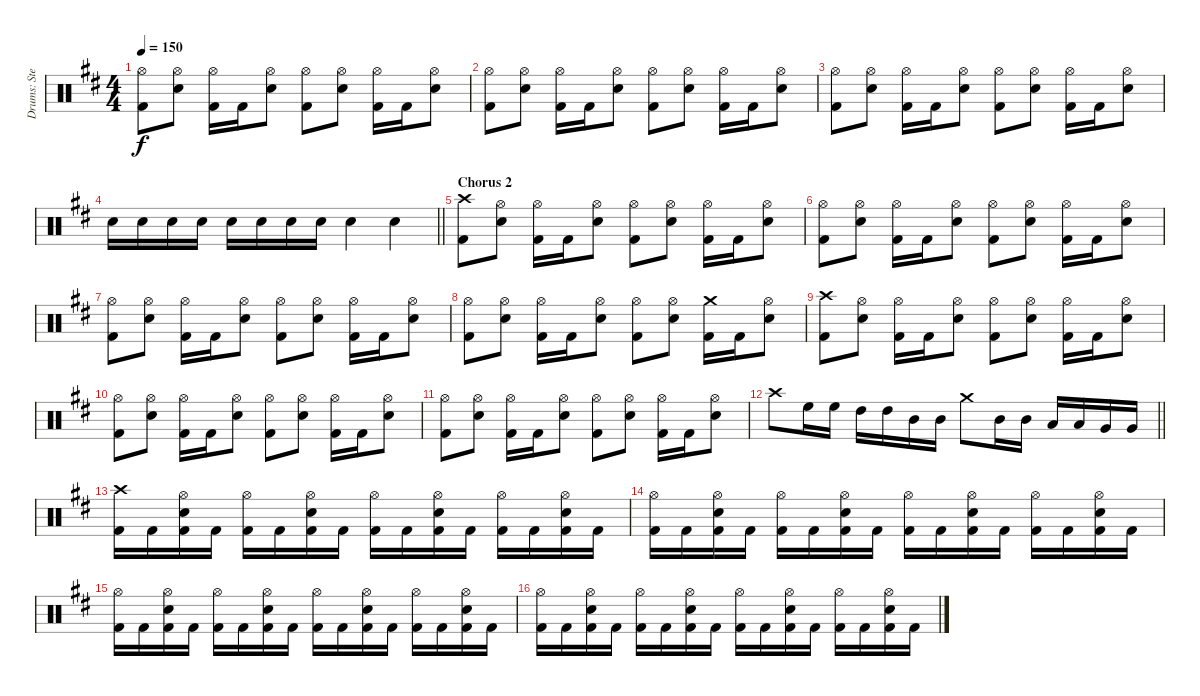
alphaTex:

\track ("Drums: Stefan Svantesson" "Drums: Ste") {instrument percussion}
\staff {score}
\articulation defaults
\ts (4 4)
\tempo 150
\clef neutral
\ks d
("Hi-Hat (open)" "Kick (hit) 2").8{dy f} ("Hi-Hat (open)" "Electric Snare (hit)").8 ("Hi-Hat (open)" "Kick (hit) 2").16 "Kick (hit) 2".16 ("Hi-Hat (open)" "Electric Snare (hit)").8 ("Hi-Hat (open)" "Kick (hit) 2").8 ("Hi-Hat (open)" "Electric Snare (hit)").8 ("Hi-Hat (open)" "Kick (hit) 2").16 "Kick (hit) 2".16 ("Hi-Hat (open)" "Electric Snare (hit)").8 |
("Hi-Hat (open)" "Kick (hit) 2").8 ("Hi-Hat (open)" "Electric Snare (hit)").8 ("Hi-Hat (open)" "Kick (hit) 2").16 "Kick (hit) 2".16 ("Hi-Hat (open)" "Electric Snare (hit)").8 ("Hi-Hat (open)" "Kick (hit) 2").8 ("Hi-Hat (open)" "Electric Snare (hit)").8 ("Hi-Hat (open)" "Kick (hit) 2").16 "Kick (hit) 2".16 ("Hi-Hat (open)" "Electric Snare (hit)").8 |
("Hi-Hat (open)" "Kick (hit) 2").8 ("Hi-Hat (open)" "Electric Snare (hit)").8 ("Hi-Hat (open)" "Kick (hit) 2").16 "Kick (hit) 2".16 ("Hi-Hat (open)" "Electric Snare (hit)").8 ("Hi-Hat (open)" "Kick (hit) 2").8 ("Hi-Hat (open)" "Electric Snare (hit)").8 ("Hi-Hat (open)" "Kick (hit) 2").16 "Kick (hit) 2".16 ("Hi-Hat (open)" "Electric Snare (hit)").8 |
\barLineRight lightlight "Electric Snare (hit)".16 "Electric Snare (hit)".16 "Electric Snare (hit)".16 "Electric Snare (hit)".16 "Electric Snare (hit)".16 "Electric Snare (hit)".16 "Electric Snare (hit)".16 "Electric Snare (hit)".16 "Electric Snare (hit)".4 "Electric Snare (hit)".4
|
\section ("" "Chorus 2")
("Crash high (hit)" "Kick (hit) 2").8 ("Hi-Hat (open)" "Electric Snare (hit)").8 ("Hi-Hat (open)" "Kick (hit) 2").16 "Kick (hit) 2".16 ("Hi-Hat (open)" "Electric Snare (hit)").8 ("Hi-Hat (open)" "Kick (hit) 2").8 ("Hi-Hat (open)" "Electric Snare (hit)").8 ("Hi-Hat (open)" "Kick (hit) 2").16 "Kick (hit) 2".16 ("Hi-Hat (open)" "Electric Snare (hit)").8 |
("Hi-Hat (open)" "Kick (hit) 2").8 ("Hi-Hat (open)" "Electric Snare (hit)").8 ("Hi-Hat (open)" "Kick (hit) 2").16 "Kick (hit) 2".16 ("Hi-Hat (open)" "Electric Snare (hit)").8 ("Hi-Hat (open)" "Kick (hit) 2").8 ("Hi-Hat (open)" "Electric Snare (hit)").8 ("Hi-Hat (open)" "Kick (hit) 2").16 "Kick (hit) 2".16 ("Hi-Hat (open)" "Electric Snare (hit)").8 |
("Hi-Hat (open)" "Kick (hit) 2").8 ("Hi-Hat (open)" "Electric Snare (hit)").8 ("Hi-Hat (open)" "Kick (hit) 2").16 "Kick (hit) 2".16 ("Hi-Hat (open)" "Electric Snare (hit)").8 ("Hi-Hat (open)" "Kick (hit) 2").8 ("Hi-Hat (open)" "Electric Snare (hit)").8 ("Hi-Hat (open)" "Kick (hit) 2").16 "Kick (hit) 2".16 ("Hi-Hat (open)" "Electric Snare (hit)").8 |
("Hi-Hat (open)" "Kick (hit) 2").8 ("Hi-Hat (open)" "Electric Snare (hit)").8 ("Hi-Hat (open)" "Kick (hit) 2").16 "Kick (hit) 2".16 ("Hi-Hat (open)" "Electric Snare (hit)").8 ("Hi-Hat (open)" "Kick (hit) 2").8 ("Hi-Hat (open)" "Electric Snare (hit)").8 ("Crash medium (hit)" "Kick (hit) 2").16 "Kick (hit) 2".16 ("Hi-Hat (open)" "Electric Snare (hit)").8 |
("Crash high (hit)" "Kick (hit) 2").8 ("Hi-Hat (open)" "Electric Snare (hit)").8 ("Hi-Hat (open)" "Kick (hit) 2").16 "Kick (hit) 2".16 ("Hi-Hat (open)" "Electric Snare (hit)").8 ("Hi-Hat (open)" "Kick (hit) 2").8 ("Hi-Hat (open)" "Electric Snare (hit)").8 ("Hi-Hat (open)" "Kick (hit) 2").16 "Kick (hit) 2".16 ("Hi-Hat (open)" "Electric Snare (hit)").8 |
("Hi-Hat (open)" "Kick (hit) 2").8 ("Hi-Hat (open)" "Electric Snare (hit)").8 ("Hi-Hat (open)" "Kick (hit) 2").16 "Kick (hit) 2".16 ("Hi-Hat (open)" "Electric Snare (hit)").8 ("Hi-Hat (open)" "Kick (hit) 2").8 ("Hi-Hat (open)" "Electric Snare (hit)").8 ("Hi-Hat (open)" "Kick (hit) 2").16 "Kick (hit) 2".16 ("Hi-Hat (open)" "Electric Snare (hit)").8 |
("Hi-Hat (open)" "Kick (hit) 2").8 ("Hi-Hat (open)" "Electric Snare (hit)").8 ("Hi-Hat (open)" "Kick (hit) 2").16 "Kick (hit) 2".16 ("Hi-Hat (open)" "Electric Snare (hit)").8 ("Hi-Hat (open)" "Kick (hit) 2").8 ("Hi-Hat (open)" "Electric Snare (hit)").8 ("Hi-Hat (open)" "Kick (hit) 2").16 "Kick (hit) 2".16 ("Hi-Hat (open)" "Electric Snare (hit)").8 |
\barLineRight lightlight "Crash high (hit)".8 "High Floor Tom (hit)".16 "High Floor Tom (hit)".16 "High Tom (hit)".16 "High Tom (hit)".16 "Mid Tom (hit)".16 "Mid Tom (hit)".16 "Crash medium (hit)".8 "Mid Tom (hit)".16 "Mid Tom (hit)".16 "Low Tom (hit)".16 "Low Tom (hit)".16 "Very Low Tom (hit)".16 "Very Low Tom (hit)".16
|
("Crash high (hit)" "Kick (hit) 2").16 "Kick (hit) 2".16 ("Hi-Hat (open)" "Electric Snare (hit)" "Kick (hit) 2").16 "Kick (hit) 2".16 ("Hi-Hat (open)" "Kick (hit) 2").16 "Kick (hit) 2".16 ("Hi-Hat (open)" "Electric Snare (hit)" "Kick (hit) 2").16 "Kick (hit) 2".16 ("Hi-Hat (open)" "Kick (hit) 2").16 "Kick (hit) 2".16 ("Hi-Hat (open)" "Electric Snare (hit)" "Kick (hit) 2").16 "Kick (hit) 2".16 ("Hi-Hat (open)" "Kick (hit) 2").16 "Kick (hit) 2".16 ("Hi-Hat (open)" "Electric Snare (hit)" "Kick (hit) 2").16 "Kick (hit) 2".16 |
("Hi-Hat (open)" "Kick (hit) 2").16 "Kick (hit) 2".16 ("Hi-Hat (open)" "Electric Snare (hit)" "Kick (hit) 2").16 "Kick (hit) 2".16 ("Hi-Hat (open)" "Kick (hit) 2").16 "Kick (hit) 2".16 ("Hi-Hat (open)" "Electric Snare (hit)" "Kick (hit) 2").16 "Kick (hit) 2".16 ("Hi-Hat (open)" "Kick (hit) 2").16 "Kick (hit) 2".16 ("Hi-Hat (open)" "Electric Snare (hit)" "Kick (hit) 2").16 "Kick (hit) 2".16 ("Hi-Hat (open)" "Kick (hit) 2").16 "Kick (hit) 2".16 ("Hi-Hat (open)" "Electric Snare (hit)" "Kick (hit) 2").16 "Kick (hit) 2".16 |
("Hi-Hat (open)" "Kick (hit) 2").16 "Kick (hit) 2".16 ("Hi-Hat (open)" "Electric Snare (hit)" "Kick (hit) 2").16 "Kick (hit) 2".16 ("Hi-Hat (open)" "Kick (hit) 2").16 "Kick (hit) 2".16 ("Hi-Hat (open)" "Electric Snare (hit)" "Kick (hit) 2").16 "Kick (hit) 2".16 ("Hi-Hat (open)" "Kick (hit) 2").16 "Kick (hit) 2".16 ("Hi-Hat (open)" "Electric Snare (hit)" "Kick (hit) 2").16 "Kick (hit) 2".16 ("Hi-Hat (open)" "Kick (hit) 2").16 "Kick (hit) 2".16 ("Hi-Hat (open)" "Electric Snare (hit)" "Kick (hit) 2").16 "Kick (hit) 2".16 |
("Hi-Hat (open)" "Kick (hit) 2").16 "Kick (hit) 2".16 ("Hi-Hat (open)" "Electric Snare (hit)" "Kick (hit) 2").16 "Kick (hit) 2".16 ("Hi-Hat (open)" "Kick (hit) 2").16 "Kick (hit) 2".16 ("Hi-Hat (open)" "Electric Snare (hit)" "Kick (hit) 2").16 "Kick (hit) 2".16 ("Hi-Hat (open)" "Kick (hit) 2").16 "Kick (hit) 2".16 ("Hi-Hat (open)" "Electric Snare (hit)" "Kick (hit) 2").16 "Kick (hit) 2".16 ("Hi-Hat (open)" "Kick (hit) 2").16 "Kick (hit) 2".16 ("Hi-Hat (open)" "Electric Snare (hit)" "Kick (hit) 2").16 "Kick (hit) 2".16
